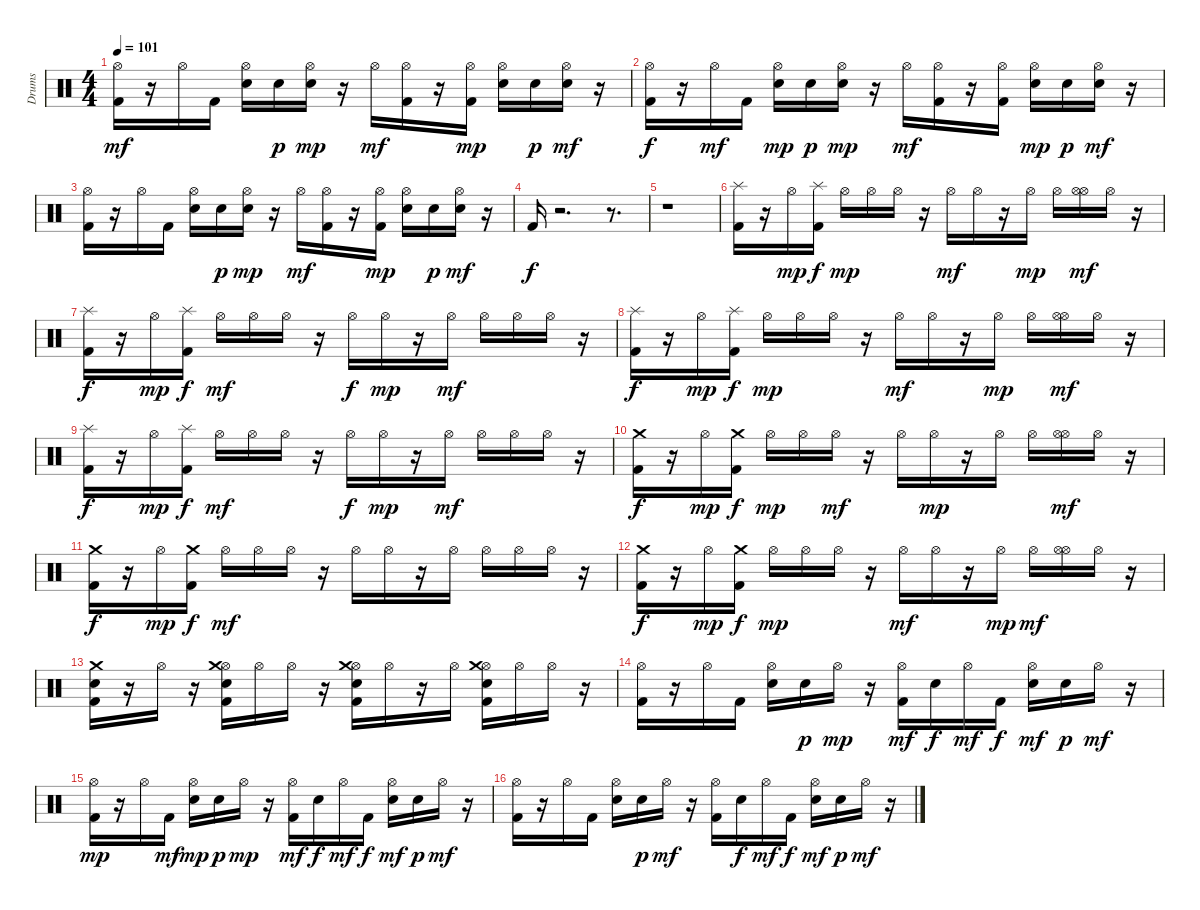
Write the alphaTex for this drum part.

\track ("Drums" "Drums") {instrument percussion}
\staff {score}
\articulation defaults
\ts (4 4)
\tempo 101
\clef neutral
\ks c
("Hi-Hat (open)" "Kick (hit) 2").16{dy mf} r.16 "Hi-Hat (open)".16 "Kick (hit) 2".16 ("Hi-Hat (open)" "Snare (hit) 2").16 "Snare (hit) 2".16{dy p} ("Snare (hit) 2" "Hi-Hat (open)").16{dy mp} r.16 "Hi-Hat (open)".16{dy mf} ("Hi-Hat (open)" "Kick (hit) 2").16 r.16 ("Kick (hit) 2" "Hi-Hat (open)").16{dy mp} ("Hi-Hat (open)" "Snare (hit) 2").16 "Snare (hit) 2".16{dy p} ("Hi-Hat (open)" "Snare (hit) 2").16{dy mf} r.16 |
("Kick (hit) 2" "Hi-Hat (open)").16{dy f} r.16 "Hi-Hat (open)".16{dy mf} "Kick (hit) 2".16 ("Snare (hit) 2" "Hi-Hat (open)").16{dy mp} "Snare (hit) 2".16{dy p} ("Hi-Hat (open)" "Snare (hit) 2").16{dy mp} r.16 "Hi-Hat (open)".16{dy mf} ("Hi-Hat (open)" "Kick (hit) 2").16 r.16 ("Hi-Hat (open)" "Kick (hit) 2").16 ("Hi-Hat (open)" "Snare (hit) 2").16{dy mp} "Snare (hit) 2".16{dy p} ("Hi-Hat (open)" "Snare (hit) 2").16{dy mf} r.16 |
("Hi-Hat (open)" "Kick (hit) 2").16 r.16 "Hi-Hat (open)".16 "Kick (hit) 2".16 ("Hi-Hat (open)" "Snare (hit) 2").16 "Snare (hit) 2".16{dy p} ("Snare (hit) 2" "Hi-Hat (open)").16{dy mp} r.16 "Hi-Hat (open)".16{dy mf} ("Hi-Hat (open)" "Kick (hit) 2").16 r.16 ("Kick (hit) 2" "Hi-Hat (open)").16{dy mp} ("Hi-Hat (open)" "Snare (hit) 2").16 "Snare (hit) 2".16{dy p} ("Hi-Hat (open)" "Snare (hit) 2").16{dy mf} r.16 |
"Kick (hit) 2".16{dy f} r.2{d} r.8{d} |
r.1 |
("Kick (hit) 2" "Splash (hit)").16 r.16 "Hi-Hat (open)".16{dy mp} ("Kick (hit) 2" "Splash (hit)").16{dy f} "Hi-Hat (open)".16{dy mp} "Hi-Hat (open)".16 "Hi-Hat (open)".16 r.16 "Hi-Hat (open)".16{dy mf} "Hi-Hat (open)".16 r.16 "Hi-Hat (open)".16{dy mp} "Hi-Hat (open)".16 ("Hi-Hat (open)" "Hi-Hat (open)").16{dy mf} "Hi-Hat (open)".16 r.16 |
("Kick (hit) 2" "Splash (hit)").16{dy f} r.16 "Hi-Hat (open)".16{dy mp} ("Kick (hit) 2" "Splash (hit)").16{dy f} "Hi-Hat (open)".16{dy mf} "Hi-Hat (open)".16 "Hi-Hat (open)".16 r.16 "Hi-Hat (open)".16{dy f} "Hi-Hat (open)".16{dy mp} r.16 "Hi-Hat (open)".16{dy mf} "Hi-Hat (open)".16 "Hi-Hat (open)".16 "Hi-Hat (open)".16 r.16 |
("Kick (hit) 2" "Splash (hit)").16{dy f} r.16 "Hi-Hat (open)".16{dy mp} ("Kick (hit) 2" "Splash (hit)").16{dy f} "Hi-Hat (open)".16{dy mp} "Hi-Hat (open)".16 "Hi-Hat (open)".16 r.16 "Hi-Hat (open)".16{dy mf} "Hi-Hat (open)".16 r.16 "Hi-Hat (open)".16{dy mp} "Hi-Hat (open)".16 ("Hi-Hat (open)" "Hi-Hat (open)").16{dy mf} "Hi-Hat (open)".16 r.16 |
("Kick (hit) 2" "Splash (hit)").16{dy f} r.16 "Hi-Hat (open)".16{dy mp} ("Kick (hit) 2" "Splash (hit)").16{dy f} "Hi-Hat (open)".16{dy mf} "Hi-Hat (open)".16 "Hi-Hat (open)".16 r.16 "Hi-Hat (open)".16{dy f} "Hi-Hat (open)".16{dy mp} r.16 "Hi-Hat (open)".16{dy mf} "Hi-Hat (open)".16 "Hi-Hat (open)".16 "Hi-Hat (open)".16 r.16 |
("Crash medium (hit)" "Kick (hit) 2").16{dy f} r.16 "Hi-Hat (open)".16{dy mp} ("Crash medium (hit)" "Kick (hit) 2").16{dy f} "Hi-Hat (open)".16{dy mp} "Hi-Hat (open)".16 "Hi-Hat (open)".16{dy mf} r.16 "Hi-Hat (open)".16 "Hi-Hat (open)".16{dy mp} r.16 "Hi-Hat (open)".16 "Hi-Hat (open)".16 ("Hi-Hat (open)" "Hi-Hat (open)").16{dy mf} "Hi-Hat (open)".16 r.16 |
("Crash medium (hit)" "Kick (hit) 2").16{dy f} r.16 "Hi-Hat (open)".16{dy mp} ("Crash medium (hit)" "Kick (hit) 2").16{dy f} "Hi-Hat (open)".16{dy mf} "Hi-Hat (open)".16 "Hi-Hat (open)".16 r.16 "Hi-Hat (open)".16 "Hi-Hat (open)".16 r.16 "Hi-Hat (open)".16 "Hi-Hat (open)".16 "Hi-Hat (open)".16 "Hi-Hat (open)".16 r.16 |
("Crash medium (hit)" "Kick (hit) 2").16{dy f} r.16 "Hi-Hat (open)".16{dy mp} ("Crash medium (hit)" "Kick (hit) 2").16{dy f} "Hi-Hat (open)".16{dy mp} "Hi-Hat (open)".16 "Hi-Hat (open)".16 r.16 "Hi-Hat (open)".16{dy mf} "Hi-Hat (open)".16 r.16 "Hi-Hat (open)".16{dy mp} "Hi-Hat (open)".16{dy mf} ("Hi-Hat (open)" "Hi-Hat (open)").16 "Hi-Hat (open)".16 r.16 |
("Kick (hit) 2" "Snare (hit) 2" "Crash medium (hit)").16 r.16 "Hi-Hat (open)".16 r.16 ("Hi-Hat (open)" "Snare (hit) 2" "Kick (hit) 2" "Crash medium (hit)").16 "Hi-Hat (open)".16 "Hi-Hat (open)".16 r.16 ("Hi-Hat (open)" "Kick (hit) 2" "Snare (hit) 2" "Crash medium (hit)").16 "Hi-Hat (open)".16 r.16 "Hi-Hat (open)".16 ("Snare (hit) 2" "Kick (hit) 2" "Hi-Hat (open)" "Crash medium (hit)").16 "Hi-Hat (open)".16 "Hi-Hat (open)".16 r.16 |
("Kick (hit) 2" "Hi-Hat (open)").16 r.16 "Hi-Hat (open)".16 "Kick (hit) 2".16 ("Snare (hit) 2" "Hi-Hat (open)").16 "Snare (hit) 2".16{dy p} "Hi-Hat (open)".16{dy mp} r.16 ("Kick (hit) 2" "Hi-Hat (open)").16{dy mf} "Snare (hit) 2".16{dy f} "Hi-Hat (open)".16{dy mf} "Kick (hit) 2".16{dy f} ("Hi-Hat (open)" "Snare (hit) 2").16{dy mf} "Snare (hit) 2".16{dy p} "Hi-Hat (open)".16{dy mf} r.16 |
("Kick (hit) 2" "Hi-Hat (open)").16{dy mp} r.16 "Hi-Hat (open)".16 "Kick (hit) 2".16{dy mf} ("Hi-Hat (open)" "Snare (hit) 2").16{dy mp} "Snare (hit) 2".16{dy p} "Hi-Hat (open)".16{dy mp} r.16 ("Hi-Hat (open)" "Kick (hit) 2").16{dy mf} "Snare (hit) 2".16{dy f} "Hi-Hat (open)".16{dy mf} "Kick (hit) 2".16{dy f} ("Snare (hit) 2" "Hi-Hat (open)").16{dy mf} "Snare (hit) 2".16{dy p} "Hi-Hat (open)".16{dy mf} r.16 |
("Kick (hit) 2" "Hi-Hat (open)").16 r.16 "Hi-Hat (open)".16 "Kick (hit) 2".16 ("Snare (hit) 2" "Hi-Hat (open)").16 "Snare (hit) 2".16{dy p} "Hi-Hat (open)".16{dy mf} r.16 ("Kick (hit) 2" "Hi-Hat (open)").16 "Snare (hit) 2".16{dy f} "Hi-Hat (open)".16{dy mf} "Kick (hit) 2".16{dy f} ("Snare (hit) 2" "Hi-Hat (open)").16{dy mf} "Snare (hit) 2".16{dy p} "Hi-Hat (open)".16{dy mf} r.16
